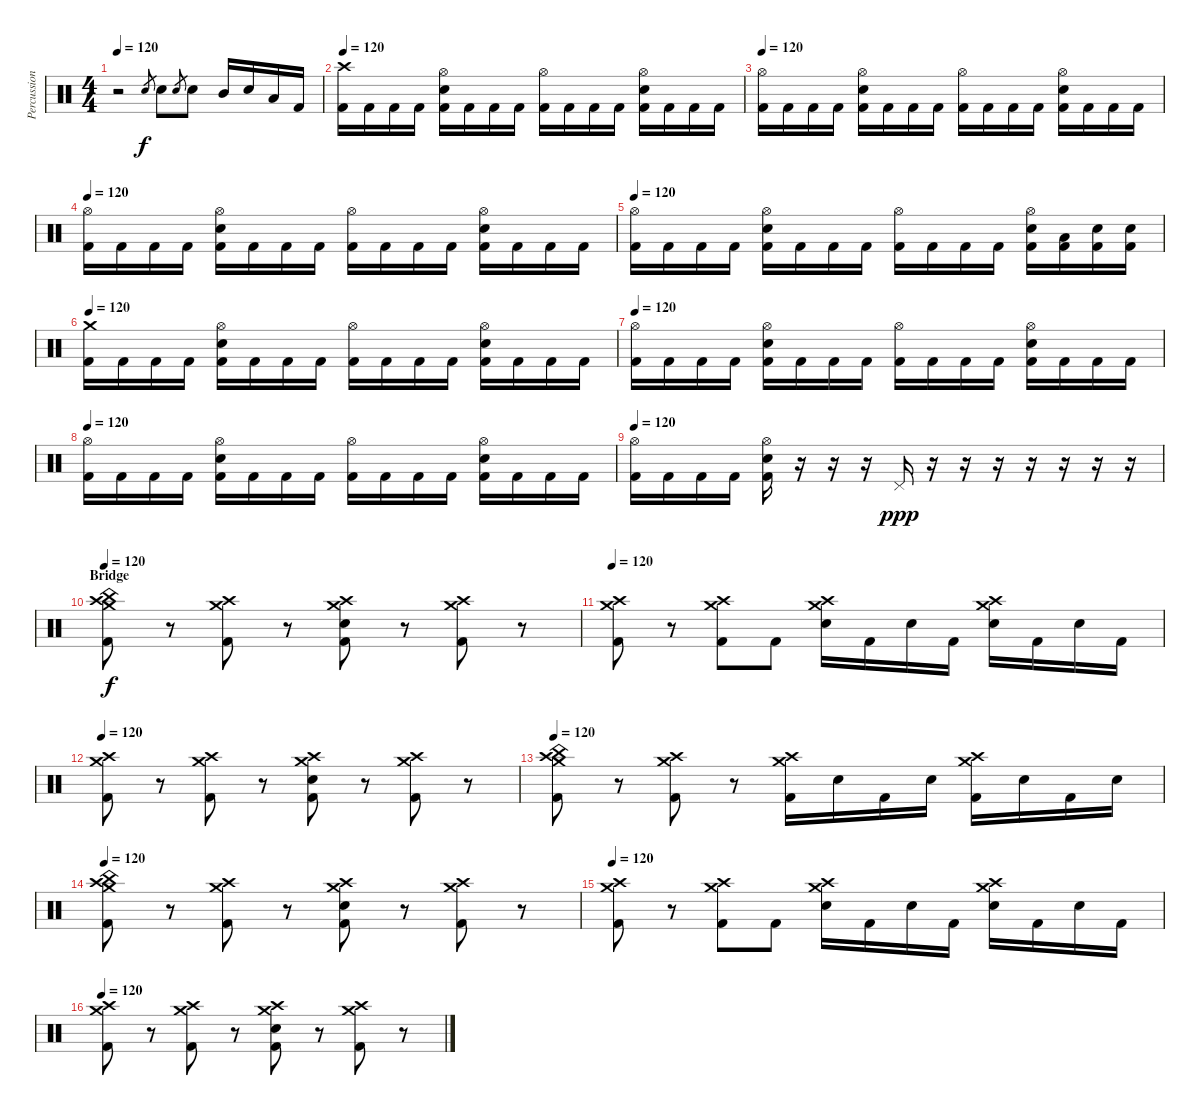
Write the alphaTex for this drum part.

\track ("Percussion" "Percussion") {instrument percussion}
\staff {score}
\articulation defaults
\ts (4 4)
\tempo 120
\clef neutral
\ks c
r.2{dy f} "Electric Snare (hit)".8{gr} "Electric Snare (hit)".8 "Electric Snare (hit)".8{gr} "Electric Snare (hit)".8 "Mid Tom (hit)".16 "Electric Snare (hit)".16 "Low Tom (hit)".16 "Kick (hit) 2".16 |
\tempo 120
("Crash high (hit)" "Kick (hit) 2").16 "Kick (hit) 2".16 "Kick (hit) 2".16 "Kick (hit) 2".16 ("Hi-Hat (open)" "Electric Snare (hit)" "Kick (hit) 2").16 "Kick (hit) 2".16 "Kick (hit) 2".16 "Kick (hit) 2".16 ("Hi-Hat (open)" "Kick (hit) 2").16 "Kick (hit) 2".16 "Kick (hit) 2".16 "Kick (hit) 2".16 ("Hi-Hat (open)" "Electric Snare (hit)" "Kick (hit) 2").16 "Kick (hit) 2".16 "Kick (hit) 2".16 "Kick (hit) 2".16 |
\tempo 120
("Hi-Hat (open)" "Kick (hit) 2").16 "Kick (hit) 2".16 "Kick (hit) 2".16 "Kick (hit) 2".16 ("Hi-Hat (open)" "Electric Snare (hit)" "Kick (hit) 2").16 "Kick (hit) 2".16 "Kick (hit) 2".16 "Kick (hit) 2".16 ("Hi-Hat (open)" "Kick (hit) 2").16 "Kick (hit) 2".16 "Kick (hit) 2".16 "Kick (hit) 2".16 ("Hi-Hat (open)" "Electric Snare (hit)" "Kick (hit) 2").16 "Kick (hit) 2".16 "Kick (hit) 2".16 "Kick (hit) 2".16 |
\tempo 120
("Hi-Hat (open)" "Kick (hit) 2").16 "Kick (hit) 2".16 "Kick (hit) 2".16 "Kick (hit) 2".16 ("Hi-Hat (open)" "Electric Snare (hit)" "Kick (hit) 2").16 "Kick (hit) 2".16 "Kick (hit) 2".16 "Kick (hit) 2".16 ("Hi-Hat (open)" "Kick (hit) 2").16 "Kick (hit) 2".16 "Kick (hit) 2".16 "Kick (hit) 2".16 ("Hi-Hat (open)" "Electric Snare (hit)" "Kick (hit) 2").16 "Kick (hit) 2".16 "Kick (hit) 2".16 "Kick (hit) 2".16 |
\tempo 120
("Hi-Hat (open)" "Kick (hit) 2").16 "Kick (hit) 2".16 "Kick (hit) 2".16 "Kick (hit) 2".16 ("Hi-Hat (open)" "Electric Snare (hit)" "Kick (hit) 2").16 "Kick (hit) 2".16 "Kick (hit) 2".16 "Kick (hit) 2".16 ("Hi-Hat (open)" "Kick (hit) 2").16 "Kick (hit) 2".16 "Kick (hit) 2".16 "Kick (hit) 2".16 ("Hi-Hat (open)" "Electric Snare (hit)" "Kick (hit) 2").16 ("Low Tom (hit)" "Kick (hit) 2").16 ("Electric Snare (hit)" "Kick (hit) 2").16 ("Electric Snare (hit)" "Kick (hit) 2").16 |
\tempo 120
("Crash medium (hit)" "Kick (hit) 2").16 "Kick (hit) 2".16 "Kick (hit) 2".16 "Kick (hit) 2".16 ("Hi-Hat (open)" "Electric Snare (hit)" "Kick (hit) 2").16 "Kick (hit) 2".16 "Kick (hit) 2".16 "Kick (hit) 2".16 ("Hi-Hat (open)" "Kick (hit) 2").16 "Kick (hit) 2".16 "Kick (hit) 2".16 "Kick (hit) 2".16 ("Hi-Hat (open)" "Electric Snare (hit)" "Kick (hit) 2").16 "Kick (hit) 2".16 "Kick (hit) 2".16 "Kick (hit) 2".16 |
\tempo 120
("Hi-Hat (open)" "Kick (hit) 2").16 "Kick (hit) 2".16 "Kick (hit) 2".16 "Kick (hit) 2".16 ("Hi-Hat (open)" "Electric Snare (hit)" "Kick (hit) 2").16 "Kick (hit) 2".16 "Kick (hit) 2".16 "Kick (hit) 2".16 ("Hi-Hat (open)" "Kick (hit) 2").16 "Kick (hit) 2".16 "Kick (hit) 2".16 "Kick (hit) 2".16 ("Hi-Hat (open)" "Electric Snare (hit)" "Kick (hit) 2").16 "Kick (hit) 2".16 "Kick (hit) 2".16 "Kick (hit) 2".16 |
\tempo 120
("Hi-Hat (open)" "Kick (hit) 2").16 "Kick (hit) 2".16 "Kick (hit) 2".16 "Kick (hit) 2".16 ("Hi-Hat (open)" "Electric Snare (hit)" "Kick (hit) 2").16 "Kick (hit) 2".16 "Kick (hit) 2".16 "Kick (hit) 2".16 ("Hi-Hat (open)" "Kick (hit) 2").16 "Kick (hit) 2".16 "Kick (hit) 2".16 "Kick (hit) 2".16 ("Hi-Hat (open)" "Electric Snare (hit)" "Kick (hit) 2").16 "Kick (hit) 2".16 "Kick (hit) 2".16 "Kick (hit) 2".16 |
\tempo 120
("Hi-Hat (open)" "Kick (hit) 2").16 "Kick (hit) 2".16 "Kick (hit) 2".16 "Kick (hit) 2".16 ("Hi-Hat (open)" "Electric Snare (hit)" "Kick (hit) 2").16 r.16 r.16 r.16 "Pedal Hi-Hat (hit)".16{dy ppp} r.16 r.16 r.16 r.16 r.16 r.16 r.16 |
\section ("" "Bridge")
\tempo 120
("Crash high (hit)" "Crash medium (hit)" "China (hit)" "Kick (hit) 2").8{dy f} r.8 ("Crash high (hit)" "Crash medium (hit)" "Kick (hit) 2").8 r.8 ("Crash high (hit)" "Crash medium (hit)" "Electric Snare (hit)" "Kick (hit) 2").8 r.8 ("Crash high (hit)" "Crash medium (hit)" "Kick (hit) 2").8 r.8 |
\tempo 120
("Crash high (hit)" "Crash medium (hit)" "Kick (hit) 2").8 r.8 ("Crash high (hit)" "Crash medium (hit)" "Kick (hit) 2").8 "Kick (hit) 2".8 ("Crash high (hit)" "Crash medium (hit)" "Electric Snare (hit)").16 "Kick (hit) 2".16 "Electric Snare (hit)".16 "Kick (hit) 2".16 ("Crash high (hit)" "Crash medium (hit)" "Electric Snare (hit)").16 "Kick (hit) 2".16 "Electric Snare (hit)".16 "Kick (hit) 2".16 |
\tempo 120
("Crash high (hit)" "Crash medium (hit)" "Kick (hit) 2").8 r.8 ("Crash high (hit)" "Crash medium (hit)" "Kick (hit) 2").8 r.8 ("Crash high (hit)" "Crash medium (hit)" "Electric Snare (hit)" "Kick (hit) 2").8 r.8 ("Crash high (hit)" "Crash medium (hit)" "Kick (hit) 2").8 r.8 |
\tempo 120
("Crash high (hit)" "Crash medium (hit)" "China (hit)" "Kick (hit) 2").8 r.8 ("Crash high (hit)" "Crash medium (hit)" "Kick (hit) 2").8 r.8 ("Crash high (hit)" "Crash medium (hit)" "Kick (hit) 2").16 "Electric Snare (hit)".16 "Kick (hit) 2".16 "Electric Snare (hit)".16 ("Crash high (hit)" "Crash medium (hit)" "Kick (hit) 2").16 "Electric Snare (hit)".16 "Kick (hit) 2".16 "Electric Snare (hit)".16 |
\tempo 120
("Crash high (hit)" "Crash medium (hit)" "China (hit)" "Kick (hit) 2").8 r.8 ("Crash high (hit)" "Crash medium (hit)" "Kick (hit) 2").8 r.8 ("Crash high (hit)" "Crash medium (hit)" "Electric Snare (hit)" "Kick (hit) 2").8 r.8 ("Crash high (hit)" "Crash medium (hit)" "Kick (hit) 2").8 r.8 |
\tempo 120
("Crash high (hit)" "Crash medium (hit)" "Kick (hit) 2").8 r.8 ("Crash high (hit)" "Crash medium (hit)" "Kick (hit) 2").8 "Kick (hit) 2".8 ("Crash high (hit)" "Crash medium (hit)" "Electric Snare (hit)").16 "Kick (hit) 2".16 "Electric Snare (hit)".16 "Kick (hit) 2".16 ("Crash high (hit)" "Crash medium (hit)" "Electric Snare (hit)").16 "Kick (hit) 2".16 "Electric Snare (hit)".16 "Kick (hit) 2".16 |
\tempo 120
("Crash high (hit)" "Crash medium (hit)" "Kick (hit) 2").8 r.8 ("Crash high (hit)" "Crash medium (hit)" "Kick (hit) 2").8 r.8 ("Crash high (hit)" "Crash medium (hit)" "Electric Snare (hit)" "Kick (hit) 2").8 r.8 ("Crash high (hit)" "Crash medium (hit)" "Kick (hit) 2").8 r.8
